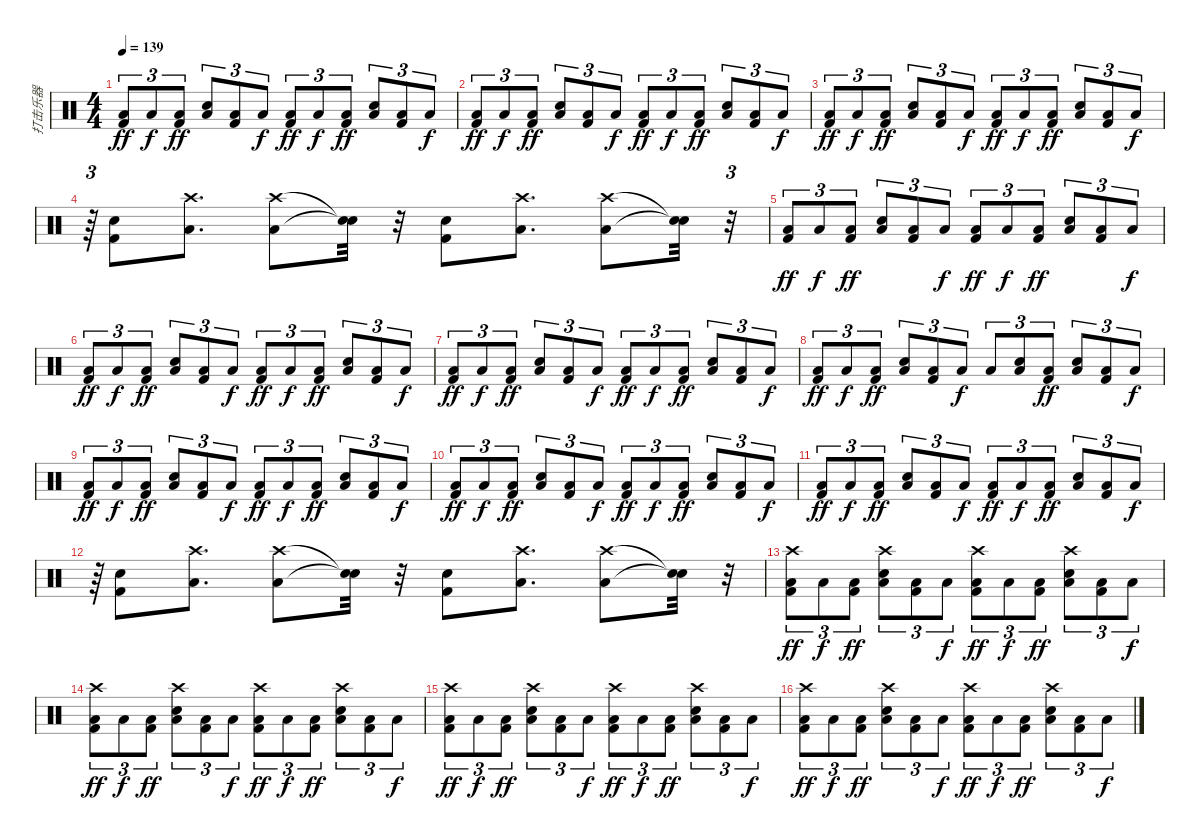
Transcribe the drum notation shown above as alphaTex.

\track ("打击乐器" "打击乐器") {instrument percussion}
\staff {score}
\articulation defaults
\ts (4 4)
\tempo 139
\clef neutral
\ks c
("Kick (hit) 2" "Low Floor Tom (hit)").8{tu (3 2) dy ff} "Low Floor Tom (hit)".8{tu (3 2) dy f} ("Kick (hit) 2" "Low Floor Tom (hit)").8{tu (3 2) dy ff} ("Snare (hit) 2" "Low Floor Tom (hit)").8{tu (3 2)} ("Kick (hit) 2" "Low Floor Tom (hit)").8{tu (3 2)} "Low Floor Tom (hit)".8{tu (3 2) dy f} ("Kick (hit) 2" "Low Floor Tom (hit)").8{tu (3 2) dy ff} "Low Floor Tom (hit)".8{tu (3 2) dy f} ("Kick (hit) 2" "Low Floor Tom (hit)").8{tu (3 2) dy ff} ("Snare (hit) 2" "Low Floor Tom (hit)").8{tu (3 2)} ("Kick (hit) 2" "Low Floor Tom (hit)").8{tu (3 2)} "Low Floor Tom (hit)".8{tu (3 2) dy f} |
("Kick (hit) 2" "Low Floor Tom (hit)").8{tu (3 2) dy ff} "Low Floor Tom (hit)".8{tu (3 2) dy f} ("Kick (hit) 2" "Low Floor Tom (hit)").8{tu (3 2) dy ff} ("Snare (hit) 2" "Low Floor Tom (hit)").8{tu (3 2)} ("Kick (hit) 2" "Low Floor Tom (hit)").8{tu (3 2)} "Low Floor Tom (hit)".8{tu (3 2) dy f} ("Kick (hit) 2" "Low Floor Tom (hit)").8{tu (3 2) dy ff} "Low Floor Tom (hit)".8{tu (3 2) dy f} ("Kick (hit) 2" "Low Floor Tom (hit)").8{tu (3 2) dy ff} ("Snare (hit) 2" "Low Floor Tom (hit)").8{tu (3 2)} ("Kick (hit) 2" "Low Floor Tom (hit)").8{tu (3 2)} "Low Floor Tom (hit)".8{tu (3 2) dy f} |
("Kick (hit) 2" "Low Floor Tom (hit)").8{tu (3 2) dy ff} "Low Floor Tom (hit)".8{tu (3 2) dy f} ("Kick (hit) 2" "Low Floor Tom (hit)").8{tu (3 2) dy ff} ("Snare (hit) 2" "Low Floor Tom (hit)").8{tu (3 2)} ("Kick (hit) 2" "Low Floor Tom (hit)").8{tu (3 2)} "Low Floor Tom (hit)".8{tu (3 2) dy f} ("Kick (hit) 2" "Low Floor Tom (hit)").8{tu (3 2) dy ff} "Low Floor Tom (hit)".8{tu (3 2) dy f} ("Kick (hit) 2" "Low Floor Tom (hit)").8{tu (3 2) dy ff} ("Snare (hit) 2" "Low Floor Tom (hit)").8{tu (3 2)} ("Kick (hit) 2" "Low Floor Tom (hit)").8{tu (3 2)} "Low Floor Tom (hit)".8{tu (3 2) dy f} |
r.64{tu (3 2)} ("Snare (hit) 2" "Kick (hit) 2").8 ("Crash high (hit)" "Low Floor Tom (hit)").8{d} ("Crash high (hit)" "Low Floor Tom (hit)").8 ("Snare (hit)"{t} "Snare (hit)"{t}).32 r.32 ("Snare (hit) 2" "Kick (hit) 2").8 ("Crash high (hit)" "Low Floor Tom (hit)").8{d} ("Crash high (hit)" "Low Floor Tom (hit)").8 ("Snare (hit)"{t} "Snare (hit)"{t}).32 r.32{tu (3 2)} |
("Kick (hit) 2" "Low Floor Tom (hit)").8{tu (3 2) dy ff} "Low Floor Tom (hit)".8{tu (3 2) dy f} ("Kick (hit) 2" "Low Floor Tom (hit)").8{tu (3 2) dy ff} ("Snare (hit) 2" "Low Floor Tom (hit)").8{tu (3 2)} ("Kick (hit) 2" "Low Floor Tom (hit)").8{tu (3 2)} "Low Floor Tom (hit)".8{tu (3 2) dy f} ("Kick (hit) 2" "Low Floor Tom (hit)").8{tu (3 2) dy ff} "Low Floor Tom (hit)".8{tu (3 2) dy f} ("Kick (hit) 2" "Low Floor Tom (hit)").8{tu (3 2) dy ff} ("Snare (hit) 2" "Low Floor Tom (hit)").8{tu (3 2)} ("Kick (hit) 2" "Low Floor Tom (hit)").8{tu (3 2)} "Low Floor Tom (hit)".8{tu (3 2) dy f} |
("Kick (hit) 2" "Low Floor Tom (hit)").8{tu (3 2) dy ff} "Low Floor Tom (hit)".8{tu (3 2) dy f} ("Kick (hit) 2" "Low Floor Tom (hit)").8{tu (3 2) dy ff} ("Snare (hit) 2" "Low Floor Tom (hit)").8{tu (3 2)} ("Kick (hit) 2" "Low Floor Tom (hit)").8{tu (3 2)} "Low Floor Tom (hit)".8{tu (3 2) dy f} ("Kick (hit) 2" "Low Floor Tom (hit)").8{tu (3 2) dy ff} "Low Floor Tom (hit)".8{tu (3 2) dy f} ("Kick (hit) 2" "Low Floor Tom (hit)").8{tu (3 2) dy ff} ("Snare (hit) 2" "Low Floor Tom (hit)").8{tu (3 2)} ("Kick (hit) 2" "Low Floor Tom (hit)").8{tu (3 2)} "Low Floor Tom (hit)".8{tu (3 2) dy f} |
("Kick (hit) 2" "Low Floor Tom (hit)").8{tu (3 2) dy ff} "Low Floor Tom (hit)".8{tu (3 2) dy f} ("Kick (hit) 2" "Low Floor Tom (hit)").8{tu (3 2) dy ff} ("Snare (hit) 2" "Low Floor Tom (hit)").8{tu (3 2)} ("Kick (hit) 2" "Low Floor Tom (hit)").8{tu (3 2)} "Low Floor Tom (hit)".8{tu (3 2) dy f} ("Kick (hit) 2" "Low Floor Tom (hit)").8{tu (3 2) dy ff} "Low Floor Tom (hit)".8{tu (3 2) dy f} ("Kick (hit) 2" "Low Floor Tom (hit)").8{tu (3 2) dy ff} ("Snare (hit) 2" "Low Floor Tom (hit)").8{tu (3 2)} ("Kick (hit) 2" "Low Floor Tom (hit)").8{tu (3 2)} "Low Floor Tom (hit)".8{tu (3 2) dy f} |
("Kick (hit) 2" "Low Floor Tom (hit)").8{tu (3 2) dy ff} "Low Floor Tom (hit)".8{tu (3 2) dy f} ("Kick (hit) 2" "Low Floor Tom (hit)").8{tu (3 2) dy ff} ("Snare (hit) 2" "Low Floor Tom (hit)").8{tu (3 2)} ("Kick (hit) 2" "Low Floor Tom (hit)").8{tu (3 2)} "Low Floor Tom (hit)".8{tu (3 2) dy f} "Low Floor Tom (hit)".8{tu (3 2)} ("Snare (hit) 2" "Low Floor Tom (hit)").8{tu (3 2)} ("Kick (hit) 2" "Low Floor Tom (hit)").8{tu (3 2) dy ff} ("Snare (hit) 2" "Low Floor Tom (hit)").8{tu (3 2)} ("Kick (hit) 2" "Low Floor Tom (hit)").8{tu (3 2)} "Low Floor Tom (hit)".8{tu (3 2) dy f} |
("Kick (hit) 2" "Low Floor Tom (hit)").8{tu (3 2) dy ff} "Low Floor Tom (hit)".8{tu (3 2) dy f} ("Kick (hit) 2" "Low Floor Tom (hit)").8{tu (3 2) dy ff} ("Snare (hit) 2" "Low Floor Tom (hit)").8{tu (3 2)} ("Kick (hit) 2" "Low Floor Tom (hit)").8{tu (3 2)} "Low Floor Tom (hit)".8{tu (3 2) dy f} ("Kick (hit) 2" "Low Floor Tom (hit)").8{tu (3 2) dy ff} "Low Floor Tom (hit)".8{tu (3 2) dy f} ("Kick (hit) 2" "Low Floor Tom (hit)").8{tu (3 2) dy ff} ("Snare (hit) 2" "Low Floor Tom (hit)").8{tu (3 2)} ("Kick (hit) 2" "Low Floor Tom (hit)").8{tu (3 2)} "Low Floor Tom (hit)".8{tu (3 2) dy f} |
("Kick (hit) 2" "Low Floor Tom (hit)").8{tu (3 2) dy ff} "Low Floor Tom (hit)".8{tu (3 2) dy f} ("Kick (hit) 2" "Low Floor Tom (hit)").8{tu (3 2) dy ff} ("Snare (hit) 2" "Low Floor Tom (hit)").8{tu (3 2)} ("Kick (hit) 2" "Low Floor Tom (hit)").8{tu (3 2)} "Low Floor Tom (hit)".8{tu (3 2) dy f} ("Kick (hit) 2" "Low Floor Tom (hit)").8{tu (3 2) dy ff} "Low Floor Tom (hit)".8{tu (3 2) dy f} ("Kick (hit) 2" "Low Floor Tom (hit)").8{tu (3 2) dy ff} ("Snare (hit) 2" "Low Floor Tom (hit)").8{tu (3 2)} ("Kick (hit) 2" "Low Floor Tom (hit)").8{tu (3 2)} "Low Floor Tom (hit)".8{tu (3 2) dy f} |
("Kick (hit) 2" "Low Floor Tom (hit)").8{tu (3 2) dy ff} "Low Floor Tom (hit)".8{tu (3 2) dy f} ("Kick (hit) 2" "Low Floor Tom (hit)").8{tu (3 2) dy ff} ("Snare (hit) 2" "Low Floor Tom (hit)").8{tu (3 2)} ("Kick (hit) 2" "Low Floor Tom (hit)").8{tu (3 2)} "Low Floor Tom (hit)".8{tu (3 2) dy f} ("Kick (hit) 2" "Low Floor Tom (hit)").8{tu (3 2) dy ff} "Low Floor Tom (hit)".8{tu (3 2) dy f} ("Kick (hit) 2" "Low Floor Tom (hit)").8{tu (3 2) dy ff} ("Snare (hit) 2" "Low Floor Tom (hit)").8{tu (3 2)} ("Kick (hit) 2" "Low Floor Tom (hit)").8{tu (3 2)} "Low Floor Tom (hit)".8{tu (3 2) dy f} |
r.64{tu (3 2)} ("Snare (hit) 2" "Kick (hit) 2").8 ("Crash high (hit)" "Low Floor Tom (hit)").8{d} ("Crash high (hit)" "Low Floor Tom (hit)").8 ("Snare (hit)"{t} "Snare (hit)"{t}).32 r.32 ("Snare (hit) 2" "Kick (hit) 2").8 ("Crash high (hit)" "Low Floor Tom (hit)").8{d} ("Crash high (hit)" "Low Floor Tom (hit)").8 ("Snare (hit)"{t} "Snare (hit)"{t}).32 r.32{tu (3 2)} |
("Kick (hit) 2" "Crash high (hit)" "Low Floor Tom (hit)").8{tu (3 2) dy ff} "Low Floor Tom (hit)".8{tu (3 2) dy f} ("Kick (hit) 2" "Low Floor Tom (hit)").8{tu (3 2) dy ff} ("Snare (hit) 2" "Crash high (hit)" "Low Floor Tom (hit)").8{tu (3 2)} ("Kick (hit) 2" "Low Floor Tom (hit)").8{tu (3 2)} "Low Floor Tom (hit)".8{tu (3 2) dy f} ("Kick (hit) 2" "Crash high (hit)" "Low Floor Tom (hit)").8{tu (3 2) dy ff} "Low Floor Tom (hit)".8{tu (3 2) dy f} ("Kick (hit) 2" "Low Floor Tom (hit)").8{tu (3 2) dy ff} ("Snare (hit) 2" "Crash high (hit)" "Low Floor Tom (hit)").8{tu (3 2)} ("Kick (hit) 2" "Low Floor Tom (hit)").8{tu (3 2)} "Low Floor Tom (hit)".8{tu (3 2) dy f} |
("Kick (hit) 2" "Crash high (hit)" "Low Floor Tom (hit)").8{tu (3 2) dy ff} "Low Floor Tom (hit)".8{tu (3 2) dy f} ("Kick (hit) 2" "Low Floor Tom (hit)").8{tu (3 2) dy ff} ("Snare (hit) 2" "Crash high (hit)" "Low Floor Tom (hit)").8{tu (3 2)} ("Kick (hit) 2" "Low Floor Tom (hit)").8{tu (3 2)} "Low Floor Tom (hit)".8{tu (3 2) dy f} ("Kick (hit) 2" "Crash high (hit)" "Low Floor Tom (hit)").8{tu (3 2) dy ff} "Low Floor Tom (hit)".8{tu (3 2) dy f} ("Kick (hit) 2" "Low Floor Tom (hit)").8{tu (3 2) dy ff} ("Snare (hit) 2" "Crash high (hit)" "Low Floor Tom (hit)").8{tu (3 2)} ("Kick (hit) 2" "Low Floor Tom (hit)").8{tu (3 2)} "Low Floor Tom (hit)".8{tu (3 2) dy f} |
("Kick (hit) 2" "Crash high (hit)" "Low Floor Tom (hit)").8{tu (3 2) dy ff} "Low Floor Tom (hit)".8{tu (3 2) dy f} ("Kick (hit) 2" "Low Floor Tom (hit)").8{tu (3 2) dy ff} ("Snare (hit) 2" "Crash high (hit)" "Low Floor Tom (hit)").8{tu (3 2)} ("Kick (hit) 2" "Low Floor Tom (hit)").8{tu (3 2)} "Low Floor Tom (hit)".8{tu (3 2) dy f} ("Kick (hit) 2" "Crash high (hit)" "Low Floor Tom (hit)").8{tu (3 2) dy ff} "Low Floor Tom (hit)".8{tu (3 2) dy f} ("Kick (hit) 2" "Low Floor Tom (hit)").8{tu (3 2) dy ff} ("Snare (hit) 2" "Crash high (hit)" "Low Floor Tom (hit)").8{tu (3 2)} ("Kick (hit) 2" "Low Floor Tom (hit)").8{tu (3 2)} "Low Floor Tom (hit)".8{tu (3 2) dy f} |
("Kick (hit) 2" "Crash high (hit)" "Low Floor Tom (hit)").8{tu (3 2) dy ff} "Low Floor Tom (hit)".8{tu (3 2) dy f} ("Kick (hit) 2" "Low Floor Tom (hit)").8{tu (3 2) dy ff} ("Snare (hit) 2" "Crash high (hit)" "Low Floor Tom (hit)").8{tu (3 2)} ("Kick (hit) 2" "Low Floor Tom (hit)").8{tu (3 2)} "Low Floor Tom (hit)".8{tu (3 2) dy f} ("Kick (hit) 2" "Crash high (hit)" "Low Floor Tom (hit)").8{tu (3 2) dy ff} "Low Floor Tom (hit)".8{tu (3 2) dy f} ("Kick (hit) 2" "Low Floor Tom (hit)").8{tu (3 2) dy ff} ("Snare (hit) 2" "Crash high (hit)" "Low Floor Tom (hit)").8{tu (3 2)} ("Kick (hit) 2" "Low Floor Tom (hit)").8{tu (3 2)} "Low Floor Tom (hit)".8{tu (3 2) dy f}
